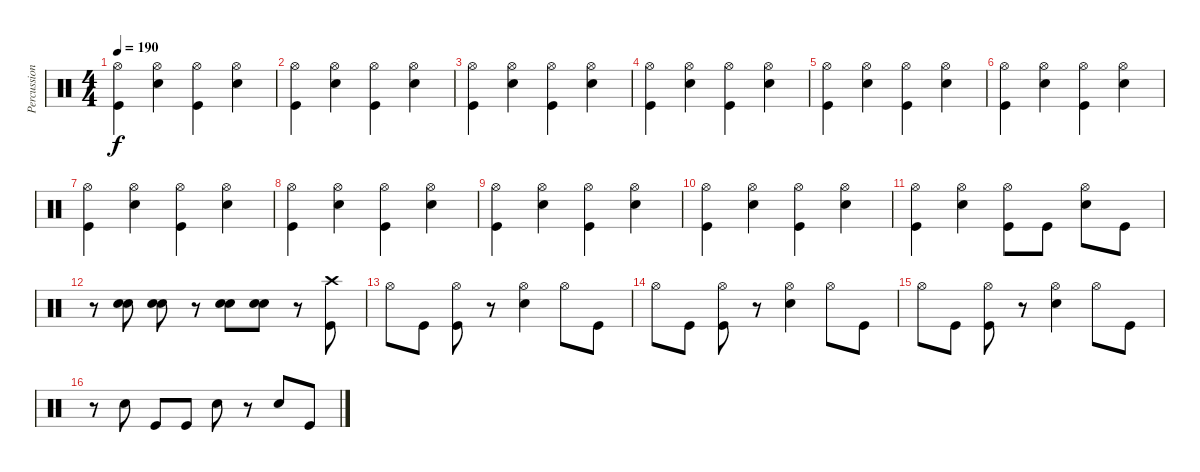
\track ("Percussion" "Percussion") {mute instrument percussion}
\staff {score}
\articulation defaults
\ts (4 4)
\tempo 190
\clef neutral
\ks c
("Hi-Hat (open)" "Kick (hit)").4{dy f} ("Hi-Hat (open)" "Snare (hit) 2").4 ("Hi-Hat (open)" "Kick (hit)").4 ("Hi-Hat (open)" "Snare (hit) 2").4 |
("Hi-Hat (open)" "Kick (hit)").4 ("Hi-Hat (open)" "Snare (hit) 2").4 ("Hi-Hat (open)" "Kick (hit)").4 ("Hi-Hat (open)" "Snare (hit) 2").4 |
("Hi-Hat (open)" "Kick (hit)").4 ("Hi-Hat (open)" "Snare (hit) 2").4 ("Hi-Hat (open)" "Kick (hit)").4 ("Hi-Hat (open)" "Snare (hit) 2").4 |
("Hi-Hat (open)" "Kick (hit)").4 ("Hi-Hat (open)" "Snare (hit) 2").4 ("Hi-Hat (open)" "Kick (hit)").4 ("Hi-Hat (open)" "Snare (hit) 2").4 |
("Hi-Hat (open)" "Kick (hit)").4 ("Hi-Hat (open)" "Snare (hit) 2").4 ("Hi-Hat (open)" "Kick (hit)").4 ("Hi-Hat (open)" "Snare (hit) 2").4 |
("Hi-Hat (open)" "Kick (hit)").4 ("Hi-Hat (open)" "Snare (hit) 2").4 ("Hi-Hat (open)" "Kick (hit)").4 ("Hi-Hat (open)" "Snare (hit) 2").4 |
("Hi-Hat (open)" "Kick (hit)").4 ("Hi-Hat (open)" "Snare (hit) 2").4 ("Hi-Hat (open)" "Kick (hit)").4 ("Hi-Hat (open)" "Snare (hit) 2").4 |
("Hi-Hat (open)" "Kick (hit)").4 ("Hi-Hat (open)" "Snare (hit) 2").4 ("Hi-Hat (open)" "Kick (hit)").4 ("Hi-Hat (open)" "Snare (hit) 2").4 |
("Hi-Hat (open)" "Kick (hit)").4 ("Hi-Hat (open)" "Snare (hit) 2").4 ("Hi-Hat (open)" "Kick (hit)").4 ("Hi-Hat (open)" "Snare (hit) 2").4 |
("Hi-Hat (open)" "Kick (hit)").4 ("Hi-Hat (open)" "Snare (hit) 2").4 ("Hi-Hat (open)" "Kick (hit)").4 ("Hi-Hat (open)" "Snare (hit) 2").4 |
("Hi-Hat (open)" "Kick (hit)").4 ("Hi-Hat (open)" "Snare (hit) 2").4 ("Hi-Hat (open)" "Kick (hit)").8 "Kick (hit)".8 ("Hi-Hat (open)" "Snare (hit) 2").8 "Kick (hit)".8 |
r.8 ("Snare (hit) 2" "Snare (hit) 2").8 ("Snare (hit) 2" "Snare (hit) 2").8 r.8 ("Snare (hit) 2" "Snare (hit) 2").8 ("Snare (hit) 2" "Snare (hit) 2").8 r.8 ("Crash high (hit)" "Kick (hit)").8 |
"Hi-Hat (open)".8 "Kick (hit)".8 ("Hi-Hat (open)" "Kick (hit)").8 r.8 ("Hi-Hat (open)" "Snare (hit) 2").4 "Hi-Hat (open)".8 "Kick (hit)".8 |
"Hi-Hat (open)".8 "Kick (hit)".8 ("Hi-Hat (open)" "Kick (hit)").8 r.8 ("Hi-Hat (open)" "Snare (hit) 2").4 "Hi-Hat (open)".8 "Kick (hit)".8 |
"Hi-Hat (open)".8 "Kick (hit)".8 ("Hi-Hat (open)" "Kick (hit)").8 r.8 ("Hi-Hat (open)" "Snare (hit) 2").4 "Hi-Hat (open)".8 "Kick (hit)".8 |
r.8 "Snare (hit) 2".8 "Kick (hit)".8 "Kick (hit)".8 "Snare (hit) 2".8 r.8 "Snare (hit) 2".8 "Kick (hit)".8
